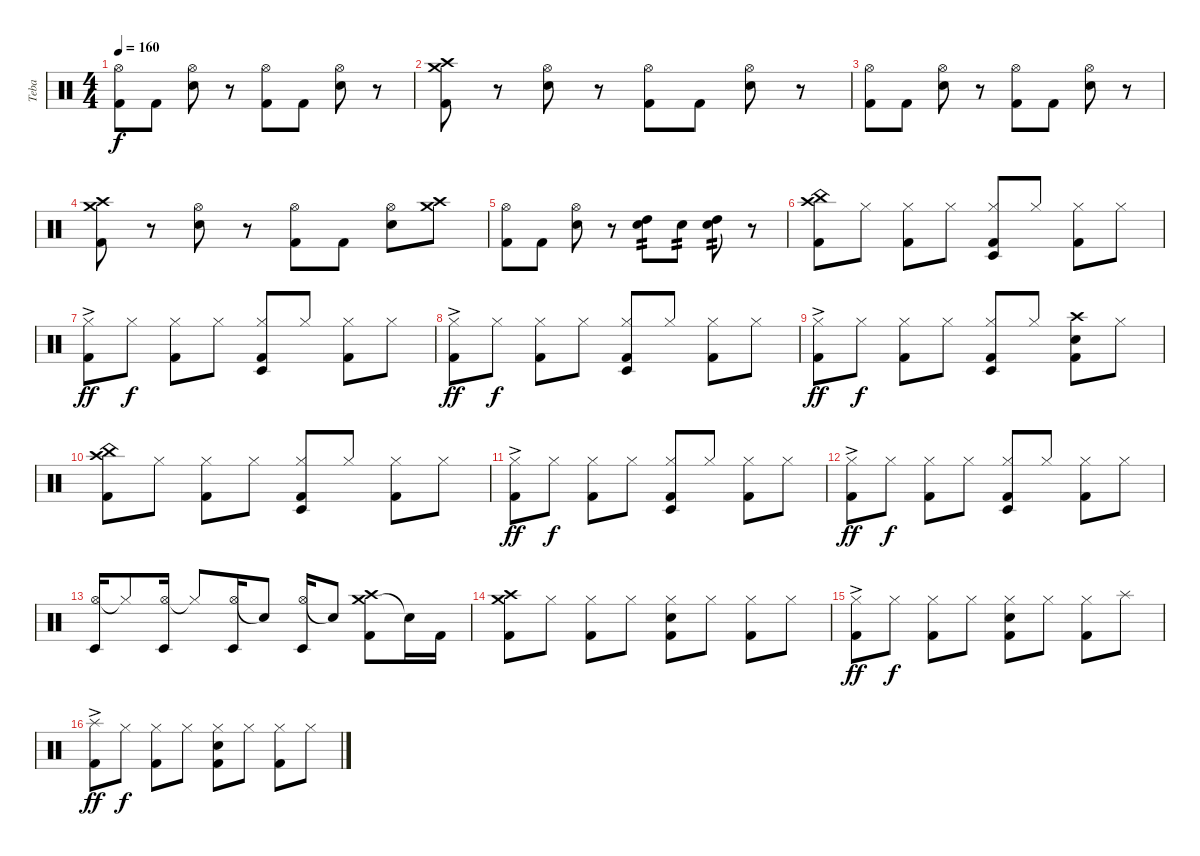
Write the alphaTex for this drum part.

\track ("Teba" "Teba") {instrument percussion}
\staff {score}
\articulation defaults
\ts (4 4)
\tempo 160
\clef neutral
\ks c
("Hi-Hat (open)" "Kick (hit) 2").8{dy f} "Kick (hit) 2".8 ("Hi-Hat (open)" "Electric Snare (hit)").8 r.8 ("Hi-Hat (open)" "Kick (hit) 2").8 "Kick (hit) 2".8 ("Hi-Hat (open)" "Electric Snare (hit)").8 r.8 |
("Crash medium (hit)" "Crash high (hit)" "Kick (hit) 2").8 r.8 ("Hi-Hat (open)" "Electric Snare (hit)").8 r.8 ("Hi-Hat (open)" "Kick (hit) 2").8 "Kick (hit) 2".8 ("Hi-Hat (open)" "Electric Snare (hit)").8 r.8 |
("Hi-Hat (open)" "Kick (hit) 2").8 "Kick (hit) 2".8 ("Hi-Hat (open)" "Electric Snare (hit)").8 r.8 ("Hi-Hat (open)" "Kick (hit) 2").8 "Kick (hit) 2".8 ("Hi-Hat (open)" "Electric Snare (hit)").8 r.8 |
("Crash medium (hit)" "Crash high (hit)" "Kick (hit) 2").8 r.8 ("Hi-Hat (open)" "Electric Snare (hit)").8 r.8 ("Hi-Hat (open)" "Kick (hit) 2").8 "Kick (hit) 2".8 ("Hi-Hat (open)" "Electric Snare (hit)").8 ("Crash medium (hit)" "Crash high (hit)").8 |
("Hi-Hat (open)" "Kick (hit) 2").8 "Kick (hit) 2".8 ("Hi-Hat (open)" "Electric Snare (hit)").8 r.8 ("High Tom (hit)" "Electric Snare (hit)").8{tp 2} "Electric Snare (hit)".8{tp 2} ("High Tom (hit)" "Electric Snare (hit)").8{tp 2} r.8 |
("China (hit)" "Crash high (hit)" "Kick (hit) 2").8 "Hi-Hat (closed)".8 ("Hi-Hat (closed)" "Kick (hit) 2").8 "Hi-Hat (closed)".8 ("Hi-Hat (closed)" "Timbale low (hit)" "Kick (hit) 2").8 "Hi-Hat (closed)".8 ("Hi-Hat (closed)" "Kick (hit) 2").8 "Hi-Hat (closed)".8 |
("Hi-Hat (closed)" "Kick (hit) 2"{ac}).8{dy ff} "Hi-Hat (closed)".8{dy f} ("Hi-Hat (closed)" "Kick (hit) 2").8 "Hi-Hat (closed)".8 ("Hi-Hat (closed)" "Timbale low (hit)" "Kick (hit) 2").8 "Hi-Hat (closed)".8 ("Hi-Hat (closed)" "Kick (hit) 2").8 "Hi-Hat (closed)".8 |
("Hi-Hat (closed)" "Kick (hit) 2"{ac}).8{dy ff} "Hi-Hat (closed)".8{dy f} ("Hi-Hat (closed)" "Kick (hit) 2").8 "Hi-Hat (closed)".8 ("Hi-Hat (closed)" "Timbale low (hit)" "Kick (hit) 2").8 "Hi-Hat (closed)".8 ("Hi-Hat (closed)" "Kick (hit) 2").8 "Hi-Hat (closed)".8 |
("Hi-Hat (closed)" "Kick (hit) 2"{ac}).8{dy ff} "Hi-Hat (closed)".8{dy f} ("Hi-Hat (closed)" "Kick (hit) 2").8 "Hi-Hat (closed)".8 ("Hi-Hat (closed)" "Timbale low (hit)" "Kick (hit) 2").8 "Hi-Hat (closed)".8 ("Crash high (hit)" "Electric Snare (hit)" "Kick (hit) 2").8 "Hi-Hat (closed)".8 |
("China (hit)" "Crash high (hit)" "Kick (hit) 2").8 "Hi-Hat (closed)".8 ("Hi-Hat (closed)" "Kick (hit) 2").8 "Hi-Hat (closed)".8 ("Hi-Hat (closed)" "Timbale low (hit)" "Kick (hit) 2").8 "Hi-Hat (closed)".8 ("Hi-Hat (closed)" "Kick (hit) 2").8 "Hi-Hat (closed)".8 |
("Hi-Hat (closed)" "Kick (hit) 2"{ac}).8{dy ff} "Hi-Hat (closed)".8{dy f} ("Hi-Hat (closed)" "Kick (hit) 2").8 "Hi-Hat (closed)".8 ("Hi-Hat (closed)" "Timbale low (hit)" "Kick (hit) 2").8 "Hi-Hat (closed)".8 ("Hi-Hat (closed)" "Kick (hit) 2").8 "Hi-Hat (closed)".8 |
("Hi-Hat (closed)" "Kick (hit) 2"{ac}).8{dy ff} "Hi-Hat (closed)".8{dy f} ("Hi-Hat (closed)" "Kick (hit) 2").8 "Hi-Hat (closed)".8 ("Hi-Hat (closed)" "Timbale low (hit)" "Kick (hit) 2").8 "Hi-Hat (closed)".8 ("Hi-Hat (closed)" "Kick (hit) 2").8 "Hi-Hat (closed)".8 |
("Hi-Hat (open)" "Timbale low (hit)").16 "Hi-Hat (closed)"{t}.8 ("Hi-Hat (open)" "Timbale low (hit)").16 "Hi-Hat (closed)"{t}.8 ("Hi-Hat (open)" "Timbale low (hit)").16 "Snare (hit)"{t}.8 ("Hi-Hat (open)" "Timbale low (hit)").16 "Snare (hit)"{t}.8 ("Crash medium (hit)" "Crash high (hit)" "Kick (hit) 2").8 "Snare (hit)"{t}.16 "Kick (hit) 2".16 |
("Crash medium (hit)" "Crash high (hit)" "Kick (hit) 2").8 "Hi-Hat (closed)".8 ("Hi-Hat (closed)" "Kick (hit) 2").8 "Hi-Hat (closed)".8 ("Hi-Hat (closed)" "Electric Snare (hit)" "Kick (hit) 2").8 "Hi-Hat (closed)".8 ("Hi-Hat (closed)" "Kick (hit) 2").8 "Hi-Hat (closed)".8 |
("Hi-Hat (closed)" "Kick (hit) 2"{ac}).8{dy ff} "Hi-Hat (closed)".8{dy f} ("Hi-Hat (closed)" "Kick (hit) 2").8 "Hi-Hat (closed)".8 ("Hi-Hat (closed)" "Electric Snare (hit)" "Kick (hit) 2").8 "Hi-Hat (closed)".8 ("Hi-Hat (closed)" "Kick (hit) 2").8 "Splash (hit)".8 |
("Splash (hit)" "Kick (hit) 2"{ac}).8{dy ff} "Hi-Hat (closed)".8{dy f} ("Hi-Hat (closed)" "Kick (hit) 2").8 "Hi-Hat (closed)".8 ("Hi-Hat (closed)" "Electric Snare (hit)" "Kick (hit) 2").8 "Hi-Hat (closed)".8 ("Hi-Hat (closed)" "Kick (hit) 2").8 "Hi-Hat (closed)".8
